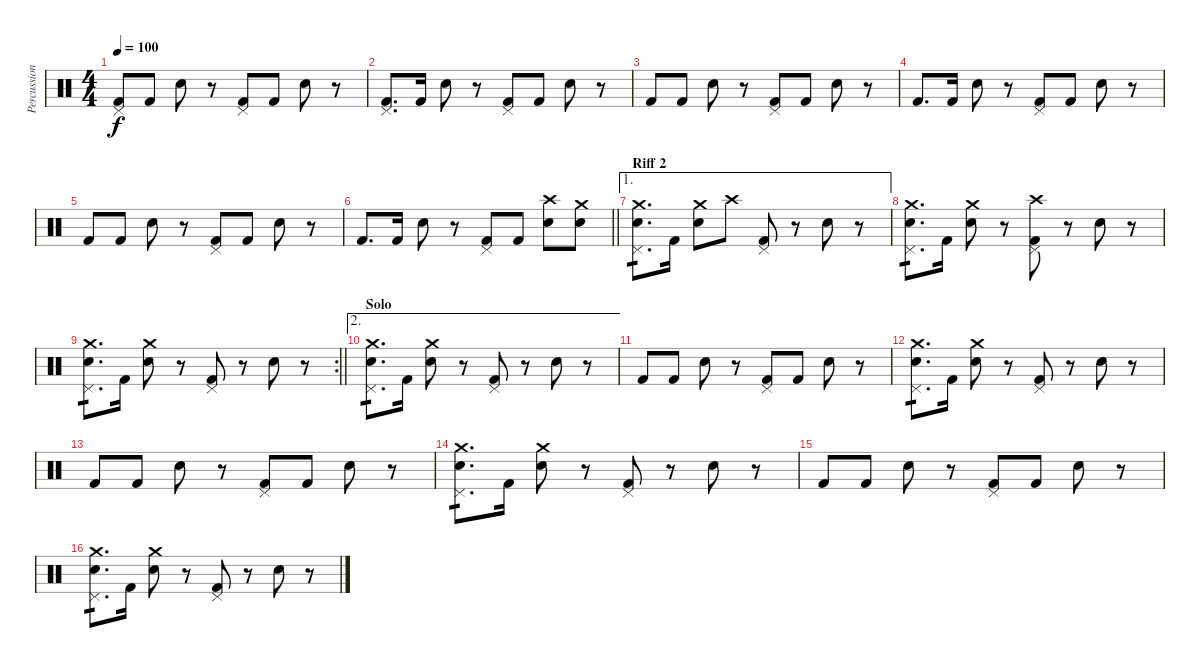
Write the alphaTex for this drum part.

\track ("Percussion" "Percussion") {instrument percussion}
\staff {score}
\articulation defaults
\ts (4 4)
\tempo 100
\clef neutral
\ks c
("Kick (hit) 2" "Pedal Hi-Hat (hit)").8{dy f} "Kick (hit) 2".8 "Snare (hit) 2".8 r.8 ("Kick (hit) 2" "Pedal Hi-Hat (hit)").8 "Kick (hit) 2".8 "Snare (hit) 2".8 r.8 |
("Kick (hit) 2" "Pedal Hi-Hat (hit)").8{d} "Kick (hit) 2".16 "Snare (hit) 2".8 r.8 ("Kick (hit) 2" "Pedal Hi-Hat (hit)").8 "Kick (hit) 2".8 "Snare (hit) 2".8 r.8 |
"Kick (hit) 2".8 "Kick (hit) 2".8 "Snare (hit) 2".8 r.8 ("Kick (hit) 2" "Pedal Hi-Hat (hit)").8 "Kick (hit) 2".8 "Snare (hit) 2".8 r.8 |
"Kick (hit) 2".8{d} "Kick (hit) 2".16 "Snare (hit) 2".8 r.8 ("Kick (hit) 2" "Pedal Hi-Hat (hit)").8 "Kick (hit) 2".8 "Snare (hit) 2".8 r.8 |
"Kick (hit) 2".8 "Kick (hit) 2".8 "Snare (hit) 2".8 r.8 ("Kick (hit) 2" "Pedal Hi-Hat (hit)").8 "Kick (hit) 2".8 "Snare (hit) 2".8 r.8 |
\barLineRight lightlight "Kick (hit) 2".8{d} "Kick (hit) 2".16 "Snare (hit) 2".8
r.8 ("Kick (hit) 2" "Pedal Hi-Hat (hit)").8 "Kick (hit) 2".8 ("Snare (hit) 2" "Crash high (hit)").8 ("Snare (hit) 2" "Crash medium (hit)").8 |
\ae 1
\section ("" "Riff 2")
("Snare (hit) 2" "Crash medium (hit)" "Pedal Hi-Hat (hit)").8{d tp 1} "Kick (hit) 2".16 ("Snare (hit) 2" "Crash medium (hit)").8 "Crash high (hit)".8 ("Kick (hit) 2" "Pedal Hi-Hat (hit)").8 r.8 "Snare (hit) 2".8 r.8 |
("Snare (hit) 2" "Crash medium (hit)" "Pedal Hi-Hat (hit)").8{d tp 1} "Kick (hit) 2".16 ("Snare (hit) 2" "Crash medium (hit)").8 r.8 ("Kick (hit) 2" "Pedal Hi-Hat (hit)" "Crash high (hit)").8 r.8 "Snare (hit) 2".8 r.8 |
\rc 2
\barLineRight lightlight
("Snare (hit) 2" "Crash medium (hit)" "Pedal Hi-Hat (hit)").8{d tp 1} "Kick (hit) 2".16 ("Snare (hit) 2" "Crash medium (hit)").8 r.8 ("Kick (hit) 2" "Pedal Hi-Hat (hit)").8 r.8 "Snare (hit) 2".8 r.8 |
\ae 2
\section ("" "Solo")
("Snare (hit) 2" "Crash medium (hit)" "Pedal Hi-Hat (hit)").8{d tp 1} "Kick (hit) 2".16 ("Snare (hit) 2" "Crash medium (hit)").8 r.8 ("Kick (hit) 2" "Pedal Hi-Hat (hit)").8 r.8 "Snare (hit) 2".8 r.8 |
"Kick (hit) 2".8 "Kick (hit) 2".8 "Snare (hit) 2".8 r.8 ("Kick (hit) 2" "Pedal Hi-Hat (hit)").8 "Kick (hit) 2".8 "Snare (hit) 2".8 r.8 |
("Snare (hit) 2" "Crash medium (hit)" "Pedal Hi-Hat (hit)").8{d tp 1} "Kick (hit) 2".16 ("Snare (hit) 2" "Crash medium (hit)").8 r.8 ("Kick (hit) 2" "Pedal Hi-Hat (hit)").8 r.8 "Snare (hit) 2".8 r.8 |
"Kick (hit) 2".8 "Kick (hit) 2".8 "Snare (hit) 2".8 r.8 ("Kick (hit) 2" "Pedal Hi-Hat (hit)").8 "Kick (hit) 2".8 "Snare (hit) 2".8 r.8 |
("Snare (hit) 2" "Crash medium (hit)" "Pedal Hi-Hat (hit)").8{d tp 1} "Kick (hit) 2".16 ("Snare (hit) 2" "Crash medium (hit)").8 r.8 ("Kick (hit) 2" "Pedal Hi-Hat (hit)").8 r.8 "Snare (hit) 2".8 r.8 |
"Kick (hit) 2".8 "Kick (hit) 2".8 "Snare (hit) 2".8 r.8 ("Kick (hit) 2" "Pedal Hi-Hat (hit)").8 "Kick (hit) 2".8 "Snare (hit) 2".8 r.8 |
("Snare (hit) 2" "Crash medium (hit)" "Pedal Hi-Hat (hit)").8{d tp 1} "Kick (hit) 2".16 ("Snare (hit) 2" "Crash medium (hit)").8 r.8 ("Kick (hit) 2" "Pedal Hi-Hat (hit)").8 r.8 "Snare (hit) 2".8 r.8
